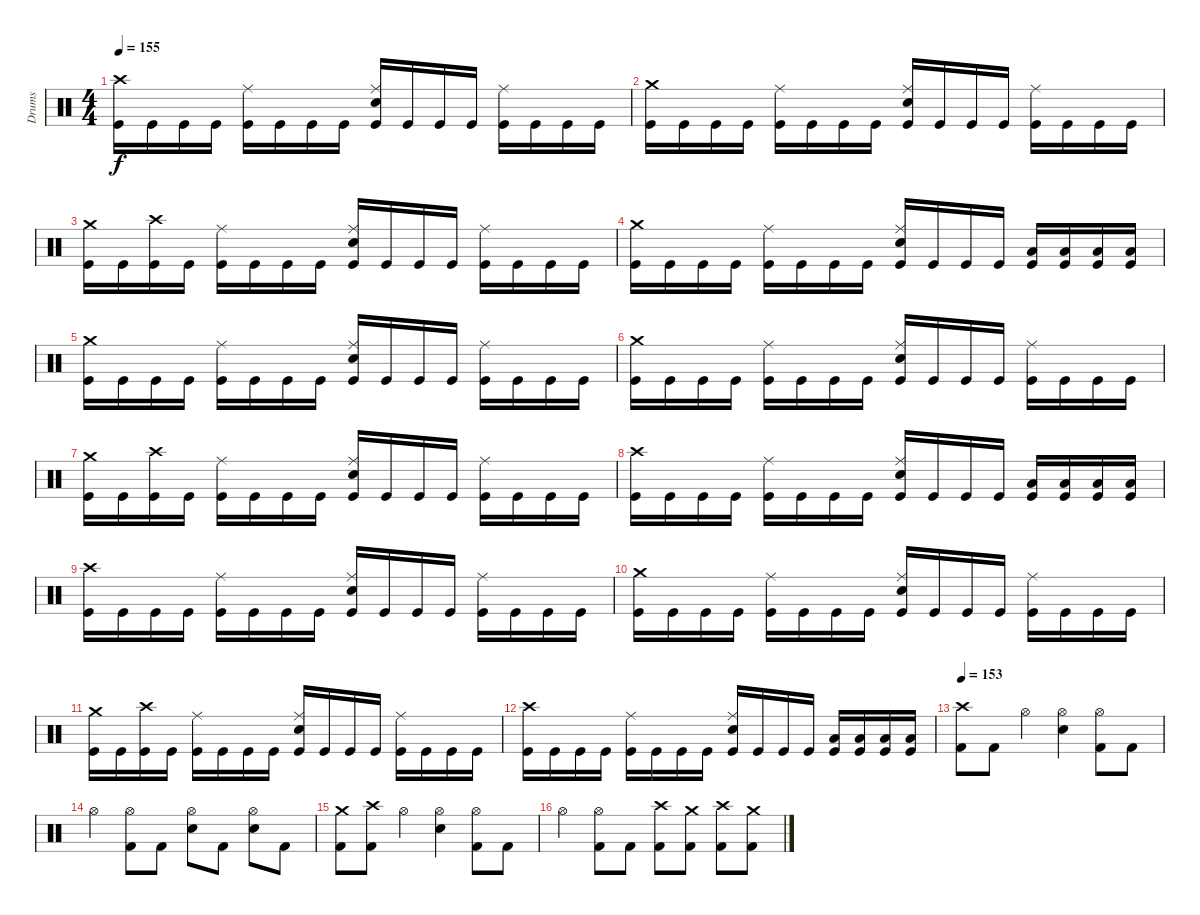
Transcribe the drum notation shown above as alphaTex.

\track ("Drums" "Drums") {instrument percussion}
\staff {score}
\articulation defaults
\ts (4 4)
\tempo 155
\clef neutral
\ks c
("Crash high (hit)" "Kick (hit)").16{dy f} "Kick (hit)".16 "Kick (hit)".16 "Kick (hit)".16 ("Ride (middle)" "Kick (hit)").16 "Kick (hit)".16 "Kick (hit)".16 "Kick (hit)".16 ("Ride (middle)" "Snare (hit) 2" "Kick (hit)").16 "Kick (hit)".16 "Kick (hit)".16 "Kick (hit)".16 ("Ride (middle)" "Kick (hit)").16 "Kick (hit)".16 "Kick (hit)".16 "Kick (hit)".16 |
("Crash medium (hit)" "Kick (hit)").16 "Kick (hit)".16 "Kick (hit)".16 "Kick (hit)".16 ("Ride (middle)" "Kick (hit)").16 "Kick (hit)".16 "Kick (hit)".16 "Kick (hit)".16 ("Ride (middle)" "Snare (hit) 2" "Kick (hit)").16 "Kick (hit)".16 "Kick (hit)".16 "Kick (hit)".16 ("Ride (middle)" "Kick (hit)").16 "Kick (hit)".16 "Kick (hit)".16 "Kick (hit)".16 |
("Crash medium (hit)" "Kick (hit)").16 "Kick (hit)".16 ("Crash high (hit)" "Kick (hit)").16 "Kick (hit)".16 ("Ride (middle)" "Kick (hit)").16 "Kick (hit)".16 "Kick (hit)".16 "Kick (hit)".16 ("Ride (middle)" "Snare (hit) 2" "Kick (hit)").16 "Kick (hit)".16 "Kick (hit)".16 "Kick (hit)".16 ("Ride (middle)" "Kick (hit)").16 "Kick (hit)".16 "Kick (hit)".16 "Kick (hit)".16 |
("Crash medium (hit)" "Kick (hit)").16 "Kick (hit)".16 "Kick (hit)".16 "Kick (hit)".16 ("Ride (middle)" "Kick (hit)").16 "Kick (hit)".16 "Kick (hit)".16 "Kick (hit)".16 ("Ride (middle)" "Snare (hit) 2" "Kick (hit)").16 "Kick (hit)".16 "Kick (hit)".16 "Kick (hit)".16 ("Low Tom (hit)" "Kick (hit)").16 ("Low Tom (hit)" "Kick (hit)").16 ("Low Tom (hit)" "Kick (hit)").16 ("Low Tom (hit)" "Kick (hit)").16 |
("Crash medium (hit)" "Kick (hit)").16 "Kick (hit)".16 "Kick (hit)".16 "Kick (hit)".16 ("Ride (middle)" "Kick (hit)").16 "Kick (hit)".16 "Kick (hit)".16 "Kick (hit)".16 ("Ride (middle)" "Snare (hit) 2" "Kick (hit)").16 "Kick (hit)".16 "Kick (hit)".16 "Kick (hit)".16 ("Ride (middle)" "Kick (hit)").16 "Kick (hit)".16 "Kick (hit)".16 "Kick (hit)".16 |
("Crash medium (hit)" "Kick (hit)").16 "Kick (hit)".16 "Kick (hit)".16 "Kick (hit)".16 ("Ride (middle)" "Kick (hit)").16 "Kick (hit)".16 "Kick (hit)".16 "Kick (hit)".16 ("Ride (middle)" "Snare (hit) 2" "Kick (hit)").16 "Kick (hit)".16 "Kick (hit)".16 "Kick (hit)".16 ("Ride (middle)" "Kick (hit)").16 "Kick (hit)".16 "Kick (hit)".16 "Kick (hit)".16 |
("Crash medium (hit)" "Kick (hit)").16 "Kick (hit)".16 ("Crash high (hit)" "Kick (hit)").16 "Kick (hit)".16 ("Ride (middle)" "Kick (hit)").16 "Kick (hit)".16 "Kick (hit)".16 "Kick (hit)".16 ("Ride (middle)" "Snare (hit) 2" "Kick (hit)").16 "Kick (hit)".16 "Kick (hit)".16 "Kick (hit)".16 ("Ride (middle)" "Kick (hit)").16 "Kick (hit)".16 "Kick (hit)".16 "Kick (hit)".16 |
("Crash high (hit)" "Kick (hit)").16 "Kick (hit)".16 "Kick (hit)".16 "Kick (hit)".16 ("Ride (middle)" "Kick (hit)").16 "Kick (hit)".16 "Kick (hit)".16 "Kick (hit)".16 ("Ride (middle)" "Snare (hit) 2" "Kick (hit)").16 "Kick (hit)".16 "Kick (hit)".16 "Kick (hit)".16 ("Low Tom (hit)" "Kick (hit)").16 ("Low Tom (hit)" "Kick (hit)").16 ("Low Tom (hit)" "Kick (hit)").16 ("Low Tom (hit)" "Kick (hit)").16 |
("Crash high (hit)" "Kick (hit)").16 "Kick (hit)".16 "Kick (hit)".16 "Kick (hit)".16 ("Ride (middle)" "Kick (hit)").16 "Kick (hit)".16 "Kick (hit)".16 "Kick (hit)".16 ("Ride (middle)" "Snare (hit) 2" "Kick (hit)").16 "Kick (hit)".16 "Kick (hit)".16 "Kick (hit)".16 ("Ride (middle)" "Kick (hit)").16 "Kick (hit)".16 "Kick (hit)".16 "Kick (hit)".16 |
("Crash medium (hit)" "Kick (hit)").16 "Kick (hit)".16 "Kick (hit)".16 "Kick (hit)".16 ("Ride (middle)" "Kick (hit)").16 "Kick (hit)".16 "Kick (hit)".16 "Kick (hit)".16 ("Ride (middle)" "Snare (hit) 2" "Kick (hit)").16 "Kick (hit)".16 "Kick (hit)".16 "Kick (hit)".16 ("Ride (middle)" "Kick (hit)").16 "Kick (hit)".16 "Kick (hit)".16 "Kick (hit)".16 |
("Crash medium (hit)" "Kick (hit)").16 "Kick (hit)".16 ("Crash high (hit)" "Kick (hit)").16 "Kick (hit)".16 ("Ride (middle)" "Kick (hit)").16 "Kick (hit)".16 "Kick (hit)".16 "Kick (hit)".16 ("Ride (middle)" "Snare (hit) 2" "Kick (hit)").16 "Kick (hit)".16 "Kick (hit)".16 "Kick (hit)".16 ("Ride (middle)" "Kick (hit)").16 "Kick (hit)".16 "Kick (hit)".16 "Kick (hit)".16 |
("Crash high (hit)" "Kick (hit)").16 "Kick (hit)".16 "Kick (hit)".16 "Kick (hit)".16 ("Ride (middle)" "Kick (hit)").16 "Kick (hit)".16 "Kick (hit)".16 "Kick (hit)".16 ("Ride (middle)" "Snare (hit) 2" "Kick (hit)").16 "Kick (hit)".16 "Kick (hit)".16 "Kick (hit)".16 ("Low Tom (hit)" "Kick (hit)").16 ("Low Tom (hit)" "Kick (hit)").16 ("Low Tom (hit)" "Kick (hit)").16 ("Low Tom (hit)" "Kick (hit)").16 |
\tempo 153
("Crash high (hit)" "Kick (hit) 2").8 "Kick (hit) 2".8 "Hi-Hat (open)".4 ("Hi-Hat (open)" "Snare (hit) 2").4 ("Hi-Hat (open)" "Kick (hit) 2").8 "Kick (hit) 2".8 |
"Hi-Hat (open)".4 ("Hi-Hat (open)" "Kick (hit) 2").8 "Kick (hit) 2".8 ("Hi-Hat (open)" "Snare (hit) 2").8 "Kick (hit) 2".8 ("Hi-Hat (open)" "Snare (hit) 2").8 "Kick (hit) 2".8 |
("Crash medium (hit)" "Kick (hit) 2").8 ("Crash high (hit)" "Kick (hit) 2").8 "Hi-Hat (open)".4 ("Hi-Hat (open)" "Snare (hit) 2").4 ("Hi-Hat (open)" "Kick (hit) 2").8 "Kick (hit) 2".8 |
"Hi-Hat (open)".4 ("Hi-Hat (open)" "Kick (hit) 2").8 "Kick (hit) 2".8 ("Crash high (hit)" "Kick (hit) 2").8 ("Crash medium (hit)" "Kick (hit) 2").8 ("Crash high (hit)" "Kick (hit) 2").8 ("Crash medium (hit)" "Kick (hit) 2").8
